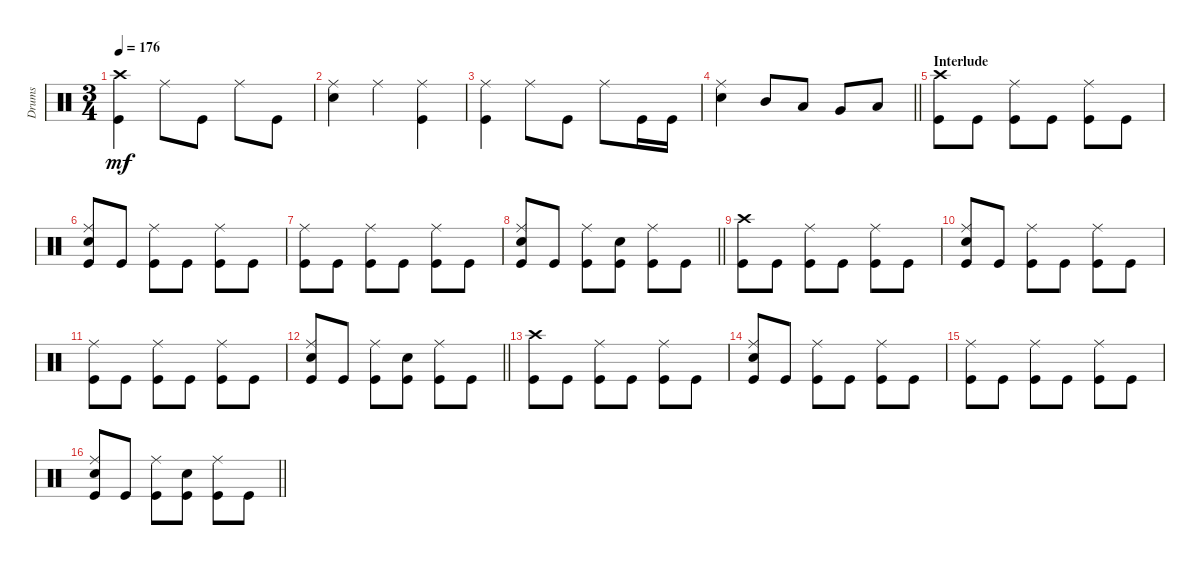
\track ("Drums" "Drums") {instrument percussion}
\staff {score}
\articulation defaults
\ts (3 4)
\tempo 176
\clef neutral
\ks c
("Kick (hit)" "Crash high (hit)").4{dy mf} "Ride (middle)".8 "Kick (hit)".8 "Ride (middle)".8 "Kick (hit)".8 |
("Snare (hit) 2" "Ride (middle)").4 "Ride (middle)".4 ("Kick (hit)" "Ride (middle)").4 |
("Kick (hit)" "Ride (middle)").4 "Ride (middle)".8 "Kick (hit)".8 "Ride (middle)".8 "Kick (hit)".16 "Kick (hit)".16 |
\barLineRight lightlight
("Snare (hit) 2" "Ride (middle)").4 "Mid Tom (hit)".8 "Low Tom (hit)".8 "Very Low Tom (hit)".8 "Low Floor Tom (hit)".8 |
\section ("" "Interlude")
("Crash high (hit)" "Kick (hit)").8 "Kick (hit)".8 ("Ride (middle)" "Kick (hit)").8 "Kick (hit)".8 ("Ride (middle)" "Kick (hit)").8 "Kick (hit)".8 |
("Ride (middle)" "Kick (hit)" "Snare (hit) 2").8 "Kick (hit)".8 ("Ride (middle)" "Kick (hit)").8 "Kick (hit)".8 ("Ride (middle)" "Kick (hit)").8 "Kick (hit)".8 |
("Ride (middle)" "Kick (hit)").8 "Kick (hit)".8 ("Ride (middle)" "Kick (hit)").8 "Kick (hit)".8 ("Ride (middle)" "Kick (hit)").8 "Kick (hit)".8 |
\barLineRight lightlight
("Ride (middle)" "Kick (hit)" "Snare (hit) 2").8 "Kick (hit)".8 ("Ride (middle)" "Kick (hit)").8 ("Snare (hit) 2" "Kick (hit)").8 ("Ride (middle)" "Kick (hit)").8 "Kick (hit)".8 |
("Crash high (hit)" "Kick (hit)").8 "Kick (hit)".8 ("Ride (middle)" "Kick (hit)").8 "Kick (hit)".8 ("Ride (middle)" "Kick (hit)").8 "Kick (hit)".8 |
("Ride (middle)" "Kick (hit)" "Snare (hit) 2").8 "Kick (hit)".8 ("Ride (middle)" "Kick (hit)").8 "Kick (hit)".8 ("Ride (middle)" "Kick (hit)").8 "Kick (hit)".8 |
("Ride (middle)" "Kick (hit)").8 "Kick (hit)".8 ("Ride (middle)" "Kick (hit)").8 "Kick (hit)".8 ("Ride (middle)" "Kick (hit)").8 "Kick (hit)".8 |
\barLineRight lightlight
("Ride (middle)" "Kick (hit)" "Snare (hit) 2").8 "Kick (hit)".8 ("Ride (middle)" "Kick (hit)").8 ("Snare (hit) 2" "Kick (hit)").8 ("Ride (middle)" "Kick (hit)").8 "Kick (hit)".8 |
("Crash high (hit)" "Kick (hit)").8 "Kick (hit)".8 ("Ride (middle)" "Kick (hit)").8 "Kick (hit)".8 ("Ride (middle)" "Kick (hit)").8 "Kick (hit)".8 |
("Ride (middle)" "Kick (hit)" "Snare (hit) 2").8 "Kick (hit)".8 ("Ride (middle)" "Kick (hit)").8 "Kick (hit)".8 ("Ride (middle)" "Kick (hit)").8 "Kick (hit)".8 |
("Ride (middle)" "Kick (hit)").8 "Kick (hit)".8 ("Ride (middle)" "Kick (hit)").8 "Kick (hit)".8 ("Ride (middle)" "Kick (hit)").8 "Kick (hit)".8 |
\barLineRight lightlight
("Ride (middle)" "Kick (hit)" "Snare (hit) 2").8 "Kick (hit)".8 ("Ride (middle)" "Kick (hit)").8 ("Snare (hit) 2" "Kick (hit)").8 ("Ride (middle)" "Kick (hit)").8 "Kick (hit)".8
